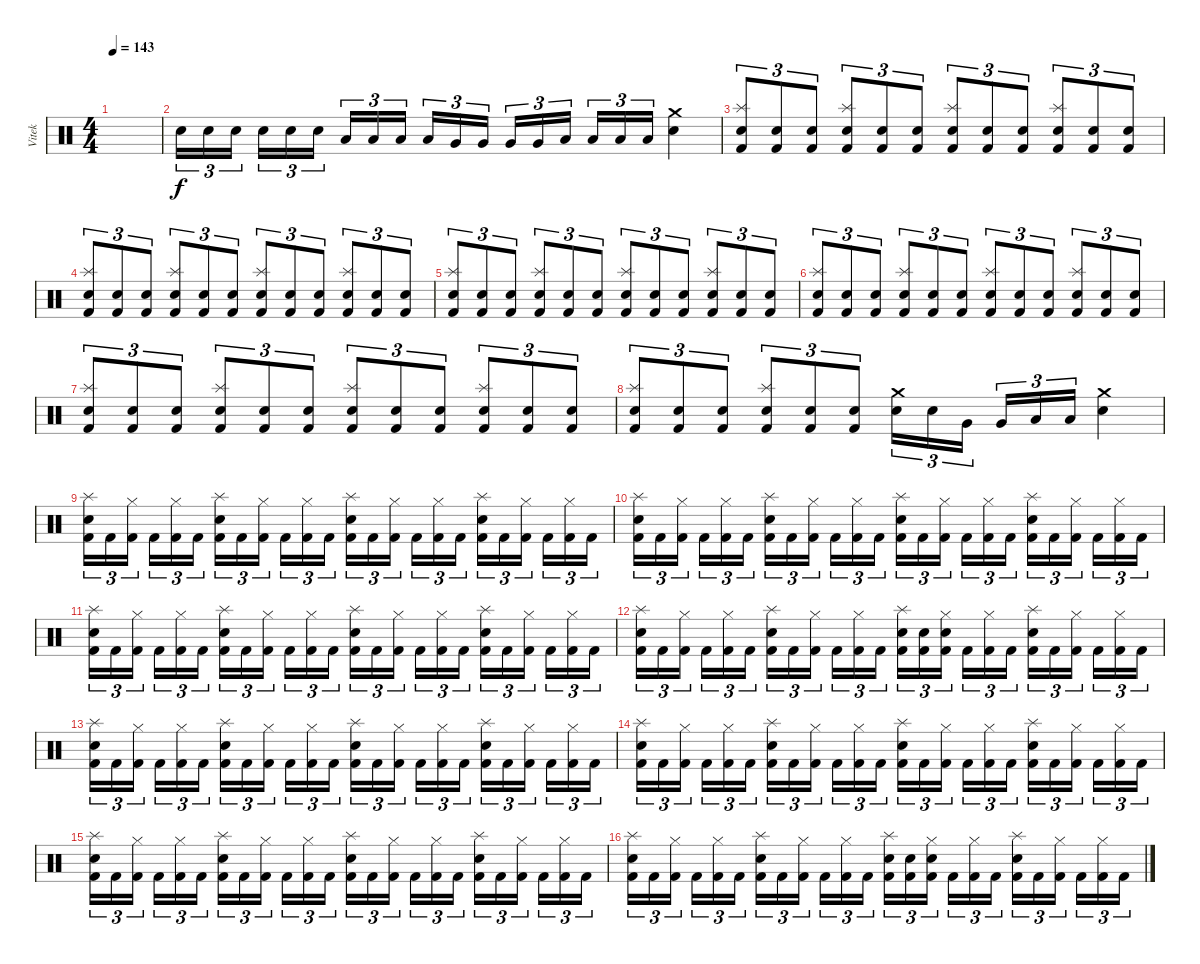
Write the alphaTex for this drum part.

\track ("Vitek" "Vitek") {instrument percussion}
\staff {score}
\articulation defaults
\ts (4 4)
\tempo 143
\clef neutral
\ks c
|
"Electric Snare (hit)".16{tu (3 2)} "Electric Snare (hit)".16{tu (3 2)} "Electric Snare (hit)".16{tu (3 2) beam splitsecondary} "Electric Snare (hit)".16{tu (3 2)} "Electric Snare (hit)".16{tu (3 2)} "Electric Snare (hit)".16{tu (3 2)} "Low Tom (hit)".16{tu (3 2)} "Low Tom (hit)".16{tu (3 2)} "Low Tom (hit)".16{tu (3 2) beam splitsecondary} "Low Tom (hit)".16{tu (3 2)} "Very Low Tom (hit)".16{tu (3 2)} "Very Low Tom (hit)".16{tu (3 2)} "Very Low Tom (hit)".16{tu (3 2)} "Very Low Tom (hit)".16{tu (3 2)} "Low Floor Tom (hit)".16{tu (3 2) beam splitsecondary} "Low Floor Tom (hit)".16{tu (3 2)} "Low Floor Tom (hit)".16{tu (3 2)} "Low Floor Tom (hit)".16{tu (3 2)} ("Crash medium (hit)" "Electric Snare (hit)").4 |
("Splash (hit)" "Electric Snare (hit)" "Kick (hit) 2").8{tu (3 2)} ("Electric Snare (hit)" "Kick (hit) 2").8{tu (3 2)} ("Electric Snare (hit)" "Kick (hit) 2").8{tu (3 2)} ("Splash (hit)" "Electric Snare (hit)" "Kick (hit) 2").8{tu (3 2)} ("Electric Snare (hit)" "Kick (hit) 2").8{tu (3 2)} ("Electric Snare (hit)" "Kick (hit) 2").8{tu (3 2)} ("Splash (hit)" "Electric Snare (hit)" "Kick (hit) 2").8{tu (3 2)} ("Electric Snare (hit)" "Kick (hit) 2").8{tu (3 2)} ("Electric Snare (hit)" "Kick (hit) 2").8{tu (3 2)} ("Splash (hit)" "Electric Snare (hit)" "Kick (hit) 2").8{tu (3 2)} ("Electric Snare (hit)" "Kick (hit) 2").8{tu (3 2)} ("Electric Snare (hit)" "Kick (hit) 2").8{tu (3 2)} |
("Splash (hit)" "Electric Snare (hit)" "Kick (hit) 2").8{tu (3 2)} ("Electric Snare (hit)" "Kick (hit) 2").8{tu (3 2)} ("Electric Snare (hit)" "Kick (hit) 2").8{tu (3 2)} ("Splash (hit)" "Electric Snare (hit)" "Kick (hit) 2").8{tu (3 2)} ("Electric Snare (hit)" "Kick (hit) 2").8{tu (3 2)} ("Electric Snare (hit)" "Kick (hit) 2").8{tu (3 2)} ("Splash (hit)" "Electric Snare (hit)" "Kick (hit) 2").8{tu (3 2)} ("Electric Snare (hit)" "Kick (hit) 2").8{tu (3 2)} ("Electric Snare (hit)" "Kick (hit) 2").8{tu (3 2)} ("Splash (hit)" "Electric Snare (hit)" "Kick (hit) 2").8{tu (3 2)} ("Electric Snare (hit)" "Kick (hit) 2").8{tu (3 2)} ("Electric Snare (hit)" "Kick (hit) 2").8{tu (3 2)} |
("Splash (hit)" "Electric Snare (hit)" "Kick (hit) 2").8{tu (3 2)} ("Electric Snare (hit)" "Kick (hit) 2").8{tu (3 2)} ("Electric Snare (hit)" "Kick (hit) 2").8{tu (3 2)} ("Splash (hit)" "Electric Snare (hit)" "Kick (hit) 2").8{tu (3 2)} ("Electric Snare (hit)" "Kick (hit) 2").8{tu (3 2)} ("Electric Snare (hit)" "Kick (hit) 2").8{tu (3 2)} ("Splash (hit)" "Electric Snare (hit)" "Kick (hit) 2").8{tu (3 2)} ("Electric Snare (hit)" "Kick (hit) 2").8{tu (3 2)} ("Electric Snare (hit)" "Kick (hit) 2").8{tu (3 2)} ("Splash (hit)" "Electric Snare (hit)" "Kick (hit) 2").8{tu (3 2)} ("Electric Snare (hit)" "Kick (hit) 2").8{tu (3 2)} ("Electric Snare (hit)" "Kick (hit) 2").8{tu (3 2)} |
("Splash (hit)" "Electric Snare (hit)" "Kick (hit) 2").8{tu (3 2)} ("Electric Snare (hit)" "Kick (hit) 2").8{tu (3 2)} ("Electric Snare (hit)" "Kick (hit) 2").8{tu (3 2)} ("Splash (hit)" "Electric Snare (hit)" "Kick (hit) 2").8{tu (3 2)} ("Electric Snare (hit)" "Kick (hit) 2").8{tu (3 2)} ("Electric Snare (hit)" "Kick (hit) 2").8{tu (3 2)} ("Splash (hit)" "Electric Snare (hit)" "Kick (hit) 2").8{tu (3 2)} ("Electric Snare (hit)" "Kick (hit) 2").8{tu (3 2)} ("Electric Snare (hit)" "Kick (hit) 2").8{tu (3 2)} ("Splash (hit)" "Electric Snare (hit)" "Kick (hit) 2").8{tu (3 2)} ("Electric Snare (hit)" "Kick (hit) 2").8{tu (3 2)} ("Electric Snare (hit)" "Kick (hit) 2").8{tu (3 2)} |
("Splash (hit)" "Electric Snare (hit)" "Kick (hit) 2").8{tu (3 2)} ("Electric Snare (hit)" "Kick (hit) 2").8{tu (3 2)} ("Electric Snare (hit)" "Kick (hit) 2").8{tu (3 2)} ("Splash (hit)" "Electric Snare (hit)" "Kick (hit) 2").8{tu (3 2)} ("Electric Snare (hit)" "Kick (hit) 2").8{tu (3 2)} ("Electric Snare (hit)" "Kick (hit) 2").8{tu (3 2)} ("Splash (hit)" "Electric Snare (hit)" "Kick (hit) 2").8{tu (3 2)} ("Electric Snare (hit)" "Kick (hit) 2").8{tu (3 2)} ("Electric Snare (hit)" "Kick (hit) 2").8{tu (3 2)} ("Splash (hit)" "Electric Snare (hit)" "Kick (hit) 2").8{tu (3 2)} ("Electric Snare (hit)" "Kick (hit) 2").8{tu (3 2)} ("Electric Snare (hit)" "Kick (hit) 2").8{tu (3 2)} |
("Splash (hit)" "Electric Snare (hit)" "Kick (hit) 2").8{tu (3 2)} ("Electric Snare (hit)" "Kick (hit) 2").8{tu (3 2)} ("Electric Snare (hit)" "Kick (hit) 2").8{tu (3 2)} ("Splash (hit)" "Electric Snare (hit)" "Kick (hit) 2").8{tu (3 2)} ("Electric Snare (hit)" "Kick (hit) 2").8{tu (3 2)} ("Electric Snare (hit)" "Kick (hit) 2").8{tu (3 2)} ("Crash medium (hit)" "Electric Snare (hit)").16{tu (3 2)} "Electric Snare (hit)".16{tu (3 2)} "Very Low Tom (hit)".16{tu (3 2) beam splitsecondary} "Very Low Tom (hit)".16{tu (3 2)} "Low Floor Tom (hit)".16{tu (3 2)} "Low Floor Tom (hit)".16{tu (3 2)} ("Crash medium (hit)" "Electric Snare (hit)").4 |
("Splash (hit)" "Electric Snare (hit)" "Kick (hit) 2").16{tu (3 2)} "Kick (hit) 2".16{tu (3 2)} ("Hi-Hat (closed)" "Kick (hit) 2").16{tu (3 2) beam splitsecondary} "Kick (hit) 2".16{tu (3 2)} ("Hi-Hat (closed)" "Kick (hit) 2").16{tu (3 2)} "Kick (hit) 2".16{tu (3 2)} ("Splash (hit)" "Electric Snare (hit)" "Kick (hit) 2").16{tu (3 2)} "Kick (hit) 2".16{tu (3 2)} ("Hi-Hat (closed)" "Kick (hit) 2").16{tu (3 2) beam splitsecondary} "Kick (hit) 2".16{tu (3 2)} ("Hi-Hat (closed)" "Kick (hit) 2").16{tu (3 2)} "Kick (hit) 2".16{tu (3 2)} ("Splash (hit)" "Electric Snare (hit)" "Kick (hit) 2").16{tu (3 2)} "Kick (hit) 2".16{tu (3 2)} ("Hi-Hat (closed)" "Kick (hit) 2").16{tu (3 2) beam splitsecondary} "Kick (hit) 2".16{tu (3 2)} ("Hi-Hat (closed)" "Kick (hit) 2").16{tu (3 2)} "Kick (hit) 2".16{tu (3 2)} ("Splash (hit)" "Electric Snare (hit)" "Kick (hit) 2").16{tu (3 2)} "Kick (hit) 2".16{tu (3 2)} ("Hi-Hat (closed)" "Kick (hit) 2").16{tu (3 2) beam splitsecondary} "Kick (hit) 2".16{tu (3 2)} ("Hi-Hat (closed)" "Kick (hit) 2").16{tu (3 2)} "Kick (hit) 2".16{tu (3 2)} |
("Splash (hit)" "Electric Snare (hit)" "Kick (hit) 2").16{tu (3 2)} "Kick (hit) 2".16{tu (3 2)} ("Hi-Hat (closed)" "Kick (hit) 2").16{tu (3 2) beam splitsecondary} "Kick (hit) 2".16{tu (3 2)} ("Hi-Hat (closed)" "Kick (hit) 2").16{tu (3 2)} "Kick (hit) 2".16{tu (3 2)} ("Splash (hit)" "Electric Snare (hit)" "Kick (hit) 2").16{tu (3 2)} "Kick (hit) 2".16{tu (3 2)} ("Hi-Hat (closed)" "Kick (hit) 2").16{tu (3 2) beam splitsecondary} "Kick (hit) 2".16{tu (3 2)} ("Hi-Hat (closed)" "Kick (hit) 2").16{tu (3 2)} "Kick (hit) 2".16{tu (3 2)} ("Splash (hit)" "Electric Snare (hit)" "Kick (hit) 2").16{tu (3 2)} "Kick (hit) 2".16{tu (3 2)} ("Hi-Hat (closed)" "Kick (hit) 2").16{tu (3 2) beam splitsecondary} "Kick (hit) 2".16{tu (3 2)} ("Hi-Hat (closed)" "Kick (hit) 2").16{tu (3 2)} "Kick (hit) 2".16{tu (3 2)} ("Splash (hit)" "Electric Snare (hit)" "Kick (hit) 2").16{tu (3 2)} "Kick (hit) 2".16{tu (3 2)} ("Hi-Hat (closed)" "Kick (hit) 2").16{tu (3 2) beam splitsecondary} "Kick (hit) 2".16{tu (3 2)} ("Hi-Hat (closed)" "Kick (hit) 2").16{tu (3 2)} "Kick (hit) 2".16{tu (3 2)} |
("Splash (hit)" "Electric Snare (hit)" "Kick (hit) 2").16{tu (3 2)} "Kick (hit) 2".16{tu (3 2)} ("Hi-Hat (closed)" "Kick (hit) 2").16{tu (3 2) beam splitsecondary} "Kick (hit) 2".16{tu (3 2)} ("Hi-Hat (closed)" "Kick (hit) 2").16{tu (3 2)} "Kick (hit) 2".16{tu (3 2)} ("Splash (hit)" "Electric Snare (hit)" "Kick (hit) 2").16{tu (3 2)} "Kick (hit) 2".16{tu (3 2)} ("Hi-Hat (closed)" "Kick (hit) 2").16{tu (3 2) beam splitsecondary} "Kick (hit) 2".16{tu (3 2)} ("Hi-Hat (closed)" "Kick (hit) 2").16{tu (3 2)} "Kick (hit) 2".16{tu (3 2)} ("Splash (hit)" "Electric Snare (hit)" "Kick (hit) 2").16{tu (3 2)} "Kick (hit) 2".16{tu (3 2)} ("Hi-Hat (closed)" "Kick (hit) 2").16{tu (3 2) beam splitsecondary} "Kick (hit) 2".16{tu (3 2)} ("Hi-Hat (closed)" "Kick (hit) 2").16{tu (3 2)} "Kick (hit) 2".16{tu (3 2)} ("Splash (hit)" "Electric Snare (hit)" "Kick (hit) 2").16{tu (3 2)} "Kick (hit) 2".16{tu (3 2)} ("Hi-Hat (closed)" "Kick (hit) 2").16{tu (3 2) beam splitsecondary} "Kick (hit) 2".16{tu (3 2)} ("Hi-Hat (closed)" "Kick (hit) 2").16{tu (3 2)} "Kick (hit) 2".16{tu (3 2)} |
("Splash (hit)" "Electric Snare (hit)" "Kick (hit) 2").16{tu (3 2)} "Kick (hit) 2".16{tu (3 2)} ("Hi-Hat (closed)" "Kick (hit) 2").16{tu (3 2) beam splitsecondary} "Kick (hit) 2".16{tu (3 2)} ("Hi-Hat (closed)" "Kick (hit) 2").16{tu (3 2)} "Kick (hit) 2".16{tu (3 2)} ("Splash (hit)" "Electric Snare (hit)" "Kick (hit) 2").16{tu (3 2)} "Kick (hit) 2".16{tu (3 2)} ("Hi-Hat (closed)" "Kick (hit) 2").16{tu (3 2) beam splitsecondary} "Kick (hit) 2".16{tu (3 2)} ("Hi-Hat (closed)" "Kick (hit) 2").16{tu (3 2)} "Kick (hit) 2".16{tu (3 2)} ("Splash (hit)" "Electric Snare (hit)" "Kick (hit) 2").16{tu (3 2)} ("Electric Snare (hit)" "Kick (hit) 2").16{tu (3 2)} ("Hi-Hat (closed)" "Electric Snare (hit)" "Kick (hit) 2").16{tu (3 2) beam splitsecondary} "Kick (hit) 2".16{tu (3 2)} ("Hi-Hat (closed)" "Kick (hit) 2").16{tu (3 2)} "Kick (hit) 2".16{tu (3 2)} ("Splash (hit)" "Electric Snare (hit)" "Kick (hit) 2").16{tu (3 2)} "Kick (hit) 2".16{tu (3 2)} ("Hi-Hat (closed)" "Kick (hit) 2").16{tu (3 2) beam splitsecondary} "Kick (hit) 2".16{tu (3 2)} ("Hi-Hat (closed)" "Kick (hit) 2").16{tu (3 2)} "Kick (hit) 2".16{tu (3 2)} |
("Splash (hit)" "Electric Snare (hit)" "Kick (hit) 2").16{tu (3 2)} "Kick (hit) 2".16{tu (3 2)} ("Hi-Hat (closed)" "Kick (hit) 2").16{tu (3 2) beam splitsecondary} "Kick (hit) 2".16{tu (3 2)} ("Hi-Hat (closed)" "Kick (hit) 2").16{tu (3 2)} "Kick (hit) 2".16{tu (3 2)} ("Splash (hit)" "Electric Snare (hit)" "Kick (hit) 2").16{tu (3 2)} "Kick (hit) 2".16{tu (3 2)} ("Hi-Hat (closed)" "Kick (hit) 2").16{tu (3 2) beam splitsecondary} "Kick (hit) 2".16{tu (3 2)} ("Hi-Hat (closed)" "Kick (hit) 2").16{tu (3 2)} "Kick (hit) 2".16{tu (3 2)} ("Splash (hit)" "Electric Snare (hit)" "Kick (hit) 2").16{tu (3 2)} "Kick (hit) 2".16{tu (3 2)} ("Hi-Hat (closed)" "Kick (hit) 2").16{tu (3 2) beam splitsecondary} "Kick (hit) 2".16{tu (3 2)} ("Hi-Hat (closed)" "Kick (hit) 2").16{tu (3 2)} "Kick (hit) 2".16{tu (3 2)} ("Splash (hit)" "Electric Snare (hit)" "Kick (hit) 2").16{tu (3 2)} "Kick (hit) 2".16{tu (3 2)} ("Hi-Hat (closed)" "Kick (hit) 2").16{tu (3 2) beam splitsecondary} "Kick (hit) 2".16{tu (3 2)} ("Hi-Hat (closed)" "Kick (hit) 2").16{tu (3 2)} "Kick (hit) 2".16{tu (3 2)} |
("Splash (hit)" "Electric Snare (hit)" "Kick (hit) 2").16{tu (3 2)} "Kick (hit) 2".16{tu (3 2)} ("Hi-Hat (closed)" "Kick (hit) 2").16{tu (3 2) beam splitsecondary} "Kick (hit) 2".16{tu (3 2)} ("Hi-Hat (closed)" "Kick (hit) 2").16{tu (3 2)} "Kick (hit) 2".16{tu (3 2)} ("Splash (hit)" "Electric Snare (hit)" "Kick (hit) 2").16{tu (3 2)} "Kick (hit) 2".16{tu (3 2)} ("Hi-Hat (closed)" "Kick (hit) 2").16{tu (3 2) beam splitsecondary} "Kick (hit) 2".16{tu (3 2)} ("Hi-Hat (closed)" "Kick (hit) 2").16{tu (3 2)} "Kick (hit) 2".16{tu (3 2)} ("Splash (hit)" "Electric Snare (hit)" "Kick (hit) 2").16{tu (3 2)} "Kick (hit) 2".16{tu (3 2)} ("Hi-Hat (closed)" "Kick (hit) 2").16{tu (3 2) beam splitsecondary} "Kick (hit) 2".16{tu (3 2)} ("Hi-Hat (closed)" "Kick (hit) 2").16{tu (3 2)} "Kick (hit) 2".16{tu (3 2)} ("Splash (hit)" "Electric Snare (hit)" "Kick (hit) 2").16{tu (3 2)} "Kick (hit) 2".16{tu (3 2)} ("Hi-Hat (closed)" "Kick (hit) 2").16{tu (3 2) beam splitsecondary} "Kick (hit) 2".16{tu (3 2)} ("Hi-Hat (closed)" "Kick (hit) 2").16{tu (3 2)} "Kick (hit) 2".16{tu (3 2)} |
("Splash (hit)" "Electric Snare (hit)" "Kick (hit) 2").16{tu (3 2)} "Kick (hit) 2".16{tu (3 2)} ("Hi-Hat (closed)" "Kick (hit) 2").16{tu (3 2) beam splitsecondary} "Kick (hit) 2".16{tu (3 2)} ("Hi-Hat (closed)" "Kick (hit) 2").16{tu (3 2)} "Kick (hit) 2".16{tu (3 2)} ("Splash (hit)" "Electric Snare (hit)" "Kick (hit) 2").16{tu (3 2)} "Kick (hit) 2".16{tu (3 2)} ("Hi-Hat (closed)" "Kick (hit) 2").16{tu (3 2) beam splitsecondary} "Kick (hit) 2".16{tu (3 2)} ("Hi-Hat (closed)" "Kick (hit) 2").16{tu (3 2)} "Kick (hit) 2".16{tu (3 2)} ("Splash (hit)" "Electric Snare (hit)" "Kick (hit) 2").16{tu (3 2)} "Kick (hit) 2".16{tu (3 2)} ("Hi-Hat (closed)" "Kick (hit) 2").16{tu (3 2) beam splitsecondary} "Kick (hit) 2".16{tu (3 2)} ("Hi-Hat (closed)" "Kick (hit) 2").16{tu (3 2)} "Kick (hit) 2".16{tu (3 2)} ("Splash (hit)" "Electric Snare (hit)" "Kick (hit) 2").16{tu (3 2)} "Kick (hit) 2".16{tu (3 2)} ("Hi-Hat (closed)" "Kick (hit) 2").16{tu (3 2) beam splitsecondary} "Kick (hit) 2".16{tu (3 2)} ("Hi-Hat (closed)" "Kick (hit) 2").16{tu (3 2)} "Kick (hit) 2".16{tu (3 2)} |
("Splash (hit)" "Electric Snare (hit)" "Kick (hit) 2").16{tu (3 2)} "Kick (hit) 2".16{tu (3 2)} ("Hi-Hat (closed)" "Kick (hit) 2").16{tu (3 2) beam splitsecondary} "Kick (hit) 2".16{tu (3 2)} ("Hi-Hat (closed)" "Kick (hit) 2").16{tu (3 2)} "Kick (hit) 2".16{tu (3 2)} ("Splash (hit)" "Electric Snare (hit)" "Kick (hit) 2").16{tu (3 2)} "Kick (hit) 2".16{tu (3 2)} ("Hi-Hat (closed)" "Kick (hit) 2").16{tu (3 2) beam splitsecondary} "Kick (hit) 2".16{tu (3 2)} ("Hi-Hat (closed)" "Kick (hit) 2").16{tu (3 2)} "Kick (hit) 2".16{tu (3 2)} ("Splash (hit)" "Electric Snare (hit)" "Kick (hit) 2").16{tu (3 2)} ("Electric Snare (hit)" "Kick (hit) 2").16{tu (3 2)} ("Hi-Hat (closed)" "Electric Snare (hit)" "Kick (hit) 2").16{tu (3 2) beam splitsecondary} "Kick (hit) 2".16{tu (3 2)} ("Hi-Hat (closed)" "Kick (hit) 2").16{tu (3 2)} "Kick (hit) 2".16{tu (3 2)} ("Splash (hit)" "Electric Snare (hit)" "Kick (hit) 2").16{tu (3 2)} "Kick (hit) 2".16{tu (3 2)} ("Hi-Hat (closed)" "Kick (hit) 2").16{tu (3 2) beam splitsecondary} "Kick (hit) 2".16{tu (3 2)} ("Hi-Hat (closed)" "Kick (hit) 2").16{tu (3 2)} "Kick (hit) 2".16{tu (3 2)}
